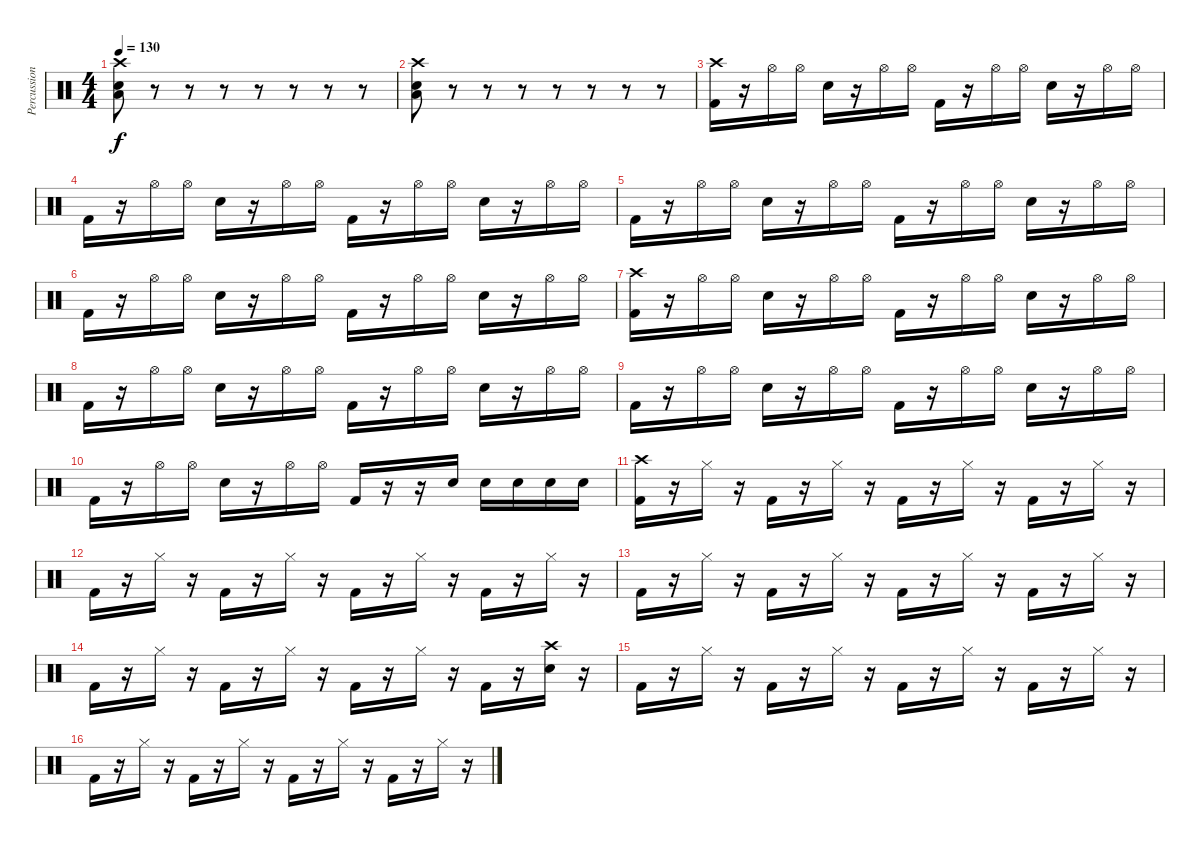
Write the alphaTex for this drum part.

\track ("Percussion" "Percussion") {instrument percussion}
\staff {score}
\articulation defaults
\ts (4 4)
\tempo 130
\clef neutral
\ks c
("Crash high (hit)" "Low Tom (hit)" "Snare (hit) 2").8{dy f} r.8 r.8 r.8 r.8 r.8 r.8 r.8 |
("Crash high (hit)" "Low Tom (hit)" "Snare (hit) 2").8 r.8 r.8 r.8 r.8 r.8 r.8 r.8 |
("Crash high (hit)" "Kick (hit) 2").16 r.16 "Hi-Hat (open)".16 "Hi-Hat (open)".16 "Snare (hit) 2".16 r.16 "Hi-Hat (open)".16 "Hi-Hat (open)".16 "Kick (hit) 2".16 r.16 "Hi-Hat (open)".16 "Hi-Hat (open)".16 "Snare (hit) 2".16 r.16 "Hi-Hat (open)".16 "Hi-Hat (open)".16 |
"Kick (hit) 2".16 r.16 "Hi-Hat (open)".16 "Hi-Hat (open)".16 "Snare (hit) 2".16 r.16 "Hi-Hat (open)".16 "Hi-Hat (open)".16 "Kick (hit) 2".16 r.16 "Hi-Hat (open)".16 "Hi-Hat (open)".16 "Snare (hit) 2".16 r.16 "Hi-Hat (open)".16 "Hi-Hat (open)".16 |
"Kick (hit) 2".16 r.16 "Hi-Hat (open)".16 "Hi-Hat (open)".16 "Snare (hit) 2".16 r.16 "Hi-Hat (open)".16 "Hi-Hat (open)".16 "Kick (hit) 2".16 r.16 "Hi-Hat (open)".16 "Hi-Hat (open)".16 "Snare (hit) 2".16 r.16 "Hi-Hat (open)".16 "Hi-Hat (open)".16 |
"Kick (hit) 2".16 r.16 "Hi-Hat (open)".16 "Hi-Hat (open)".16 "Snare (hit) 2".16 r.16 "Hi-Hat (open)".16 "Hi-Hat (open)".16 "Kick (hit) 2".16 r.16 "Hi-Hat (open)".16 "Hi-Hat (open)".16 "Snare (hit) 2".16 r.16 "Hi-Hat (open)".16 "Hi-Hat (open)".16 |
("Crash high (hit)" "Kick (hit) 2").16 r.16 "Hi-Hat (open)".16 "Hi-Hat (open)".16 "Snare (hit) 2".16 r.16 "Hi-Hat (open)".16 "Hi-Hat (open)".16 "Kick (hit) 2".16 r.16 "Hi-Hat (open)".16 "Hi-Hat (open)".16 "Snare (hit) 2".16 r.16 "Hi-Hat (open)".16 "Hi-Hat (open)".16 |
"Kick (hit) 2".16 r.16 "Hi-Hat (open)".16 "Hi-Hat (open)".16 "Snare (hit) 2".16 r.16 "Hi-Hat (open)".16 "Hi-Hat (open)".16 "Kick (hit) 2".16 r.16 "Hi-Hat (open)".16 "Hi-Hat (open)".16 "Snare (hit) 2".16 r.16 "Hi-Hat (open)".16 "Hi-Hat (open)".16 |
"Kick (hit) 2".16 r.16 "Hi-Hat (open)".16 "Hi-Hat (open)".16 "Snare (hit) 2".16 r.16 "Hi-Hat (open)".16 "Hi-Hat (open)".16 "Kick (hit) 2".16 r.16 "Hi-Hat (open)".16 "Hi-Hat (open)".16 "Snare (hit) 2".16 r.16 "Hi-Hat (open)".16 "Hi-Hat (open)".16 |
"Kick (hit) 2".16 r.16 "Hi-Hat (open)".16 "Hi-Hat (open)".16 "Snare (hit) 2".16 r.16 "Hi-Hat (open)".16 "Hi-Hat (open)".16 "Kick (hit) 2".16 r.16 r.16 "Snare (hit) 2".16 "Snare (hit) 2".16 "Snare (hit) 2".16 "Snare (hit) 2".16 "Snare (hit) 2".16 |
("Crash high (hit)" "Kick (hit) 2").16 r.16 "Hi-Hat (closed)".16 r.16 "Kick (hit) 2".16 r.16 "Hi-Hat (closed)".16 r.16 "Kick (hit) 2".16 r.16 "Hi-Hat (closed)".16 r.16 "Kick (hit) 2".16 r.16 "Hi-Hat (closed)".16 r.16 |
"Kick (hit) 2".16 r.16 "Hi-Hat (closed)".16 r.16 "Kick (hit) 2".16 r.16 "Hi-Hat (closed)".16 r.16 "Kick (hit) 2".16 r.16 "Hi-Hat (closed)".16 r.16 "Kick (hit) 2".16 r.16 "Hi-Hat (closed)".16 r.16 |
"Kick (hit) 2".16 r.16 "Hi-Hat (closed)".16 r.16 "Kick (hit) 2".16 r.16 "Hi-Hat (closed)".16 r.16 "Kick (hit) 2".16 r.16 "Hi-Hat (closed)".16 r.16 "Kick (hit) 2".16 r.16 "Hi-Hat (closed)".16 r.16 |
"Kick (hit) 2".16 r.16 "Hi-Hat (closed)".16 r.16 "Kick (hit) 2".16 r.16 "Hi-Hat (closed)".16 r.16 "Kick (hit) 2".16 r.16 "Hi-Hat (closed)".16 r.16 "Kick (hit) 2".16 r.16 ("Crash high (hit)" "Snare (hit) 2").16 r.16 |
"Kick (hit) 2".16 r.16 "Hi-Hat (closed)".16 r.16 "Kick (hit) 2".16 r.16 "Hi-Hat (closed)".16 r.16 "Kick (hit) 2".16 r.16 "Hi-Hat (closed)".16 r.16 "Kick (hit) 2".16 r.16 "Hi-Hat (closed)".16 r.16 |
"Kick (hit) 2".16 r.16 "Hi-Hat (closed)".16 r.16 "Kick (hit) 2".16 r.16 "Hi-Hat (closed)".16 r.16 "Kick (hit) 2".16 r.16 "Hi-Hat (closed)".16 r.16 "Kick (hit) 2".16 r.16 "Hi-Hat (closed)".16 r.16
